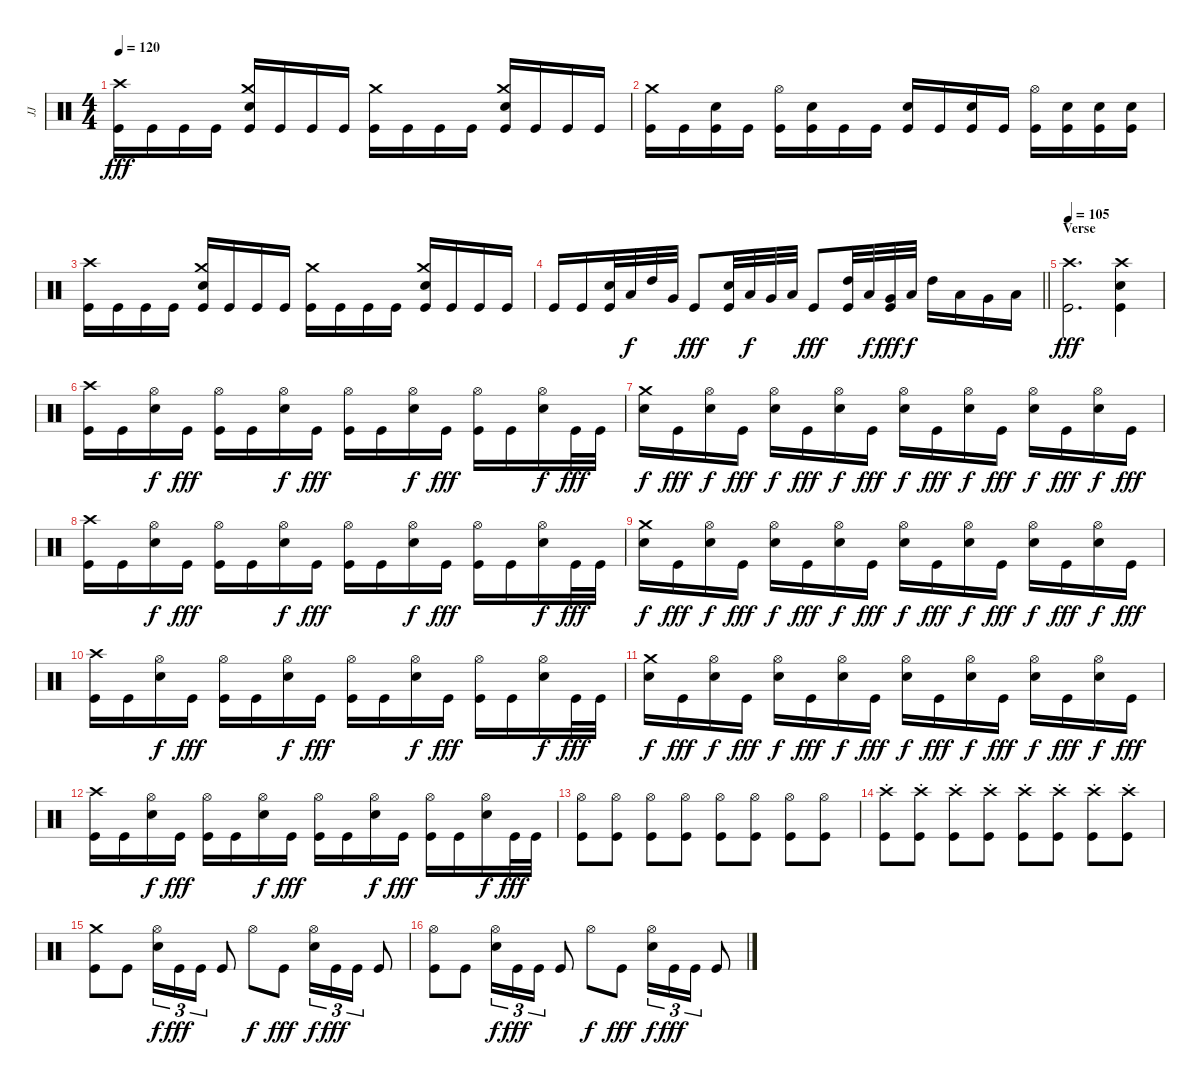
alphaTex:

\track ("JJ" "JJ") {instrument percussion}
\staff {score}
\articulation defaults
\ts (4 4)
\tempo 120
\clef neutral
\ks c
("Crash high (hit)" "Kick (hit)").16{dy fff} "Kick (hit)".16 "Kick (hit)".16 "Kick (hit)".16 ("Crash medium (hit)" "Electric Snare (hit)" "Kick (hit)").16 "Kick (hit)".16 "Kick (hit)".16 "Kick (hit)".16 ("Crash medium (hit)" "Kick (hit)").16 "Kick (hit)".16 "Kick (hit)".16 "Kick (hit)".16 ("Crash medium (hit)" "Electric Snare (hit)" "Kick (hit)").16 "Kick (hit)".16 "Kick (hit)".16 "Kick (hit)".16 |
("Crash medium (hit)" "Kick (hit)").16 "Kick (hit)".16 ("Electric Snare (hit)" "Kick (hit)").16 "Kick (hit)".16 ("Hi-Hat (open)" "Kick (hit)").16 ("Electric Snare (hit)" "Kick (hit)").16 "Kick (hit)".16 "Kick (hit)".16 ("Electric Snare (hit)" "Kick (hit)").16 "Kick (hit)".16 ("Electric Snare (hit)" "Kick (hit)").16 "Kick (hit)".16 ("Hi-Hat (open)" "Kick (hit)").16 ("Electric Snare (hit)" "Kick (hit)").16 ("Electric Snare (hit)" "Kick (hit)").16 ("Electric Snare (hit)" "Kick (hit)").16 |
("Crash high (hit)" "Kick (hit)").16 "Kick (hit)".16 "Kick (hit)".16 "Kick (hit)".16 ("Crash medium (hit)" "Electric Snare (hit)" "Kick (hit)").16 "Kick (hit)".16 "Kick (hit)".16 "Kick (hit)".16 ("Crash medium (hit)" "Kick (hit)").16 "Kick (hit)".16 "Kick (hit)".16 "Kick (hit)".16 ("Crash medium (hit)" "Electric Snare (hit)" "Kick (hit)").16 "Kick (hit)".16 "Kick (hit)".16 "Kick (hit)".16 |
\barLineRight lightlight "Kick (hit)".16 "Kick (hit)".16
("Electric Snare (hit)" "Kick (hit)").32 "Low Tom (hit)".32{dy f} "High Tom (hit)".32 "Very Low Tom (hit)".32 "Kick (hit)".8{dy fff} ("Electric Snare (hit)" "Kick (hit)").32 "Low Tom (hit)".32{dy f} "Very Low Tom (hit)".32 "Low Floor Tom (hit)".32 "Kick (hit)".8{dy fff} ("High Tom (hit)" "Kick (hit)").32 "Low Tom (hit)".32{dy f} ("Very Low Tom (hit)" "Kick (hit)").32{dy fff} "Low Floor Tom (hit)".32{dy f} "High Tom (hit)".16 "Low Tom (hit)".16 "Very Low Tom (hit)".16 "Low Floor Tom (hit)".16 |
\section ("" "Verse")
\tempo 105
("Crash high (hit)" "Kick (hit)").2{d dy fff} ("Crash high (hit)" "Electric Snare (hit)" "Kick (hit)").4 |
("Crash high (hit)" "Kick (hit)").16 "Kick (hit)".16 ("Hi-Hat (open)" "Electric Snare (hit)").16{dy f} "Kick (hit)".16{dy fff} ("Hi-Hat (open)" "Kick (hit)").16 "Kick (hit)".16 ("Hi-Hat (open)" "Electric Snare (hit)").16{dy f} "Kick (hit)".16{dy fff} ("Hi-Hat (open)" "Kick (hit)").16 "Kick (hit)".16 ("Hi-Hat (open)" "Electric Snare (hit)").16{dy f} "Kick (hit)".16{dy fff} ("Hi-Hat (open)" "Kick (hit)").16 "Kick (hit)".16 ("Hi-Hat (open)" "Electric Snare (hit)").16{dy f} "Kick (hit)".32{dy fff} "Kick (hit)".32 |
("Crash medium (hit)" "Electric Snare (hit)").16{dy f} "Kick (hit)".16{dy fff} ("Hi-Hat (open)" "Electric Snare (hit)").16{dy f} "Kick (hit)".16{dy fff} ("Hi-Hat (open)" "Electric Snare (hit)").16{dy f} "Kick (hit)".16{dy fff} ("Hi-Hat (open)" "Electric Snare (hit)").16{dy f} "Kick (hit)".16{dy fff} ("Hi-Hat (open)" "Electric Snare (hit)").16{dy f} "Kick (hit)".16{dy fff} ("Hi-Hat (open)" "Electric Snare (hit)").16{dy f} "Kick (hit)".16{dy fff} ("Hi-Hat (open)" "Electric Snare (hit)").16{dy f} "Kick (hit)".16{dy fff} ("Hi-Hat (open)" "Electric Snare (hit)").16{dy f} "Kick (hit)".16{dy fff} |
("Crash high (hit)" "Kick (hit)").16 "Kick (hit)".16 ("Hi-Hat (open)" "Electric Snare (hit)").16{dy f} "Kick (hit)".16{dy fff} ("Hi-Hat (open)" "Kick (hit)").16 "Kick (hit)".16 ("Hi-Hat (open)" "Electric Snare (hit)").16{dy f} "Kick (hit)".16{dy fff} ("Hi-Hat (open)" "Kick (hit)").16 "Kick (hit)".16 ("Hi-Hat (open)" "Electric Snare (hit)").16{dy f} "Kick (hit)".16{dy fff} ("Hi-Hat (open)" "Kick (hit)").16 "Kick (hit)".16 ("Hi-Hat (open)" "Electric Snare (hit)").16{dy f} "Kick (hit)".32{dy fff} "Kick (hit)".32 |
("Crash medium (hit)" "Electric Snare (hit)").16{dy f} "Kick (hit)".16{dy fff} ("Hi-Hat (open)" "Electric Snare (hit)").16{dy f} "Kick (hit)".16{dy fff} ("Hi-Hat (open)" "Electric Snare (hit)").16{dy f} "Kick (hit)".16{dy fff} ("Hi-Hat (open)" "Electric Snare (hit)").16{dy f} "Kick (hit)".16{dy fff} ("Hi-Hat (open)" "Electric Snare (hit)").16{dy f} "Kick (hit)".16{dy fff} ("Hi-Hat (open)" "Electric Snare (hit)").16{dy f} "Kick (hit)".16{dy fff} ("Hi-Hat (open)" "Electric Snare (hit)").16{dy f} "Kick (hit)".16{dy fff} ("Hi-Hat (open)" "Electric Snare (hit)").16{dy f} "Kick (hit)".16{dy fff} |
("Crash high (hit)" "Kick (hit)").16 "Kick (hit)".16 ("Hi-Hat (open)" "Electric Snare (hit)").16{dy f} "Kick (hit)".16{dy fff} ("Hi-Hat (open)" "Kick (hit)").16 "Kick (hit)".16 ("Hi-Hat (open)" "Electric Snare (hit)").16{dy f} "Kick (hit)".16{dy fff} ("Hi-Hat (open)" "Kick (hit)").16 "Kick (hit)".16 ("Hi-Hat (open)" "Electric Snare (hit)").16{dy f} "Kick (hit)".16{dy fff} ("Hi-Hat (open)" "Kick (hit)").16 "Kick (hit)".16 ("Hi-Hat (open)" "Electric Snare (hit)").16{dy f} "Kick (hit)".32{dy fff} "Kick (hit)".32 |
("Crash medium (hit)" "Electric Snare (hit)").16{dy f} "Kick (hit)".16{dy fff} ("Hi-Hat (open)" "Electric Snare (hit)").16{dy f} "Kick (hit)".16{dy fff} ("Hi-Hat (open)" "Electric Snare (hit)").16{dy f} "Kick (hit)".16{dy fff} ("Hi-Hat (open)" "Electric Snare (hit)").16{dy f} "Kick (hit)".16{dy fff} ("Hi-Hat (open)" "Electric Snare (hit)").16{dy f} "Kick (hit)".16{dy fff} ("Hi-Hat (open)" "Electric Snare (hit)").16{dy f} "Kick (hit)".16{dy fff} ("Hi-Hat (open)" "Electric Snare (hit)").16{dy f} "Kick (hit)".16{dy fff} ("Hi-Hat (open)" "Electric Snare (hit)").16{dy f} "Kick (hit)".16{dy fff} |
("Crash high (hit)" "Kick (hit)").16 "Kick (hit)".16 ("Hi-Hat (open)" "Electric Snare (hit)").16{dy f} "Kick (hit)".16{dy fff} ("Hi-Hat (open)" "Kick (hit)").16 "Kick (hit)".16 ("Hi-Hat (open)" "Electric Snare (hit)").16{dy f} "Kick (hit)".16{dy fff} ("Hi-Hat (open)" "Kick (hit)").16 "Kick (hit)".16 ("Hi-Hat (open)" "Electric Snare (hit)").16{dy f} "Kick (hit)".16{dy fff} ("Hi-Hat (open)" "Kick (hit)").16 "Kick (hit)".16 ("Hi-Hat (open)" "Electric Snare (hit)").16{dy f} "Kick (hit)".32{dy fff} "Kick (hit)".32 |
("Hi-Hat (open)" "Kick (hit)").8 ("Hi-Hat (open)" "Kick (hit)").8 ("Hi-Hat (open)" "Kick (hit)").8 ("Hi-Hat (open)" "Kick (hit)").8 ("Hi-Hat (open)" "Kick (hit)").8 ("Hi-Hat (open)" "Kick (hit)").8 ("Hi-Hat (open)" "Kick (hit)").8 ("Hi-Hat (open)" "Kick (hit)").8 |
("Crash high (hit)"{st} "Kick (hit)").8 ("Crash high (hit)"{st} "Kick (hit)").8 ("Crash high (hit)"{st} "Kick (hit)").8 ("Crash high (hit)"{st} "Kick (hit)").8 ("Crash high (hit)"{st} "Kick (hit)").8 ("Crash high (hit)"{st} "Kick (hit)").8 ("Crash high (hit)"{st} "Kick (hit)").8 ("Crash high (hit)"{st} "Kick (hit)").8 |
("Crash medium (hit)" "Kick (hit)").8 "Kick (hit)".8 ("Hi-Hat (open)" "Electric Snare (hit)").16{tu (3 2) dy f} "Kick (hit)".16{tu (3 2) dy fff} "Kick (hit)".16{tu (3 2)} "Kick (hit)".8 "Hi-Hat (open)".8{dy f} "Kick (hit)".8{dy fff} ("Hi-Hat (open)" "Electric Snare (hit)").16{tu (3 2) dy f} "Kick (hit)".16{tu (3 2) dy fff} "Kick (hit)".16{tu (3 2)} "Kick (hit)".8 |
("Hi-Hat (open)" "Kick (hit)").8 "Kick (hit)".8 ("Hi-Hat (open)" "Electric Snare (hit)").16{tu (3 2) dy f} "Kick (hit)".16{tu (3 2) dy fff} "Kick (hit)".16{tu (3 2)} "Kick (hit)".8 "Hi-Hat (open)".8{dy f} "Kick (hit)".8{dy fff} ("Hi-Hat (open)" "Electric Snare (hit)").16{tu (3 2) dy f} "Kick (hit)".16{tu (3 2) dy fff} "Kick (hit)".16{tu (3 2)} "Kick (hit)".8
